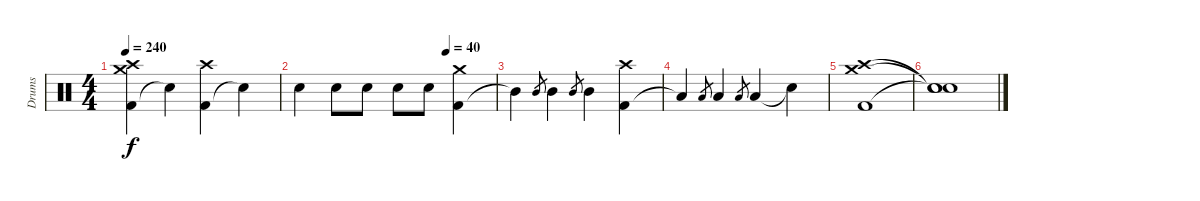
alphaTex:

\track ("Drums" "Drums") {instrument percussion}
\staff {score}
\articulation defaults
\ts (4 4)
\tempo 240
\clef neutral
\ks c
("Kick (hit) 2" "Crash medium (hit)" "Crash high (hit)").4{dy f} "Snare (hit)"{t}.4 ("Kick (hit) 2" "Crash high (hit)").4 "Snare (hit)"{t}.4 |
\tempo (40 0.75)
"Electric Snare (hit)".4 "Electric Snare (hit)".8 "Electric Snare (hit)".8 "Electric Snare (hit)".8 "Electric Snare (hit)".8 ("Kick (hit) 2" "Crash medium (hit)").4 |
"Mid Tom (hit)"{t}.4 "Mid Tom (hit)".8{gr} "Mid Tom (hit)".4 "Mid Tom (hit)".8{gr} "Mid Tom (hit)".4 ("Kick (hit) 2" "Crash high (hit)").4 |
"Low Tom (hit)"{t}.4 "Low Tom (hit)".8{gr} "Low Tom (hit)".4 "Low Tom (hit)".8{gr} "Low Tom (hit)".4 "Snare (hit)"{t}.4 |
("Kick (hit) 2" "Crash medium (hit)" "Crash high (hit)").1 |
("Snare (hit)"{t} "Snare (hit)"{t} "Snare (hit)"{t}).1
